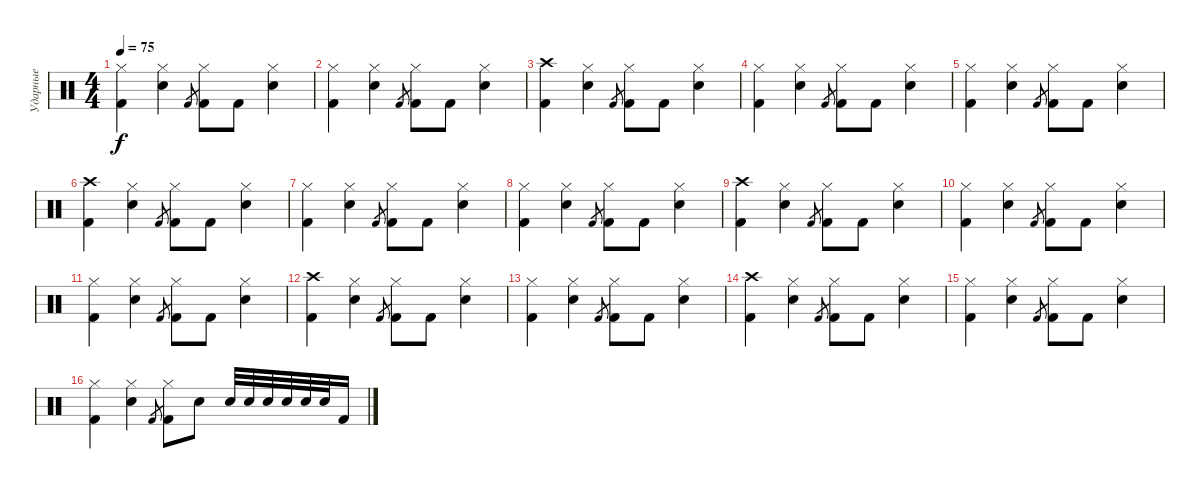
\track ("Ударные" "Ударные") {instrument percussion}
\staff {score}
\articulation defaults
\ts (4 4)
\tempo 75
\clef neutral
\ks c
("Hi-Hat (closed)" "Kick (hit) 2").4{dy f} ("Hi-Hat (closed)" "Electric Snare (hit)").4 "Kick (hit) 2".8{gr} ("Hi-Hat (closed)" "Kick (hit) 2").8 "Kick (hit) 2".8 ("Hi-Hat (closed)" "Electric Snare (hit)").4 |
("Hi-Hat (closed)" "Kick (hit) 2").4 ("Hi-Hat (closed)" "Electric Snare (hit)").4 "Kick (hit) 2".8{gr} ("Hi-Hat (closed)" "Kick (hit) 2").8 "Kick (hit) 2".8 ("Hi-Hat (closed)" "Electric Snare (hit)").4 |
("Crash high (hit)" "Kick (hit) 2").4 ("Hi-Hat (closed)" "Electric Snare (hit)").4 "Kick (hit) 2".8{gr} ("Hi-Hat (closed)" "Kick (hit) 2").8 "Kick (hit) 2".8 ("Hi-Hat (closed)" "Electric Snare (hit)").4 |
("Hi-Hat (closed)" "Kick (hit) 2").4 ("Hi-Hat (closed)" "Electric Snare (hit)").4 "Kick (hit) 2".8{gr} ("Hi-Hat (closed)" "Kick (hit) 2").8 "Kick (hit) 2".8 ("Hi-Hat (closed)" "Electric Snare (hit)").4 |
("Hi-Hat (closed)" "Kick (hit) 2").4 ("Hi-Hat (closed)" "Electric Snare (hit)").4 "Kick (hit) 2".8{gr} ("Hi-Hat (closed)" "Kick (hit) 2").8 "Kick (hit) 2".8 ("Hi-Hat (closed)" "Electric Snare (hit)").4 |
("Crash high (hit)" "Kick (hit) 2").4 ("Hi-Hat (closed)" "Electric Snare (hit)").4 "Kick (hit) 2".8{gr} ("Hi-Hat (closed)" "Kick (hit) 2").8 "Kick (hit) 2".8 ("Hi-Hat (closed)" "Electric Snare (hit)").4 |
("Hi-Hat (closed)" "Kick (hit) 2").4 ("Hi-Hat (closed)" "Electric Snare (hit)").4 "Kick (hit) 2".8{gr} ("Hi-Hat (closed)" "Kick (hit) 2").8 "Kick (hit) 2".8 ("Hi-Hat (closed)" "Electric Snare (hit)").4 |
("Hi-Hat (closed)" "Kick (hit) 2").4 ("Hi-Hat (closed)" "Electric Snare (hit)").4 "Kick (hit) 2".8{gr} ("Hi-Hat (closed)" "Kick (hit) 2").8 "Kick (hit) 2".8 ("Hi-Hat (closed)" "Electric Snare (hit)").4 |
("Crash high (hit)" "Kick (hit) 2").4 ("Hi-Hat (closed)" "Electric Snare (hit)").4 "Kick (hit) 2".8{gr} ("Hi-Hat (closed)" "Kick (hit) 2").8 "Kick (hit) 2".8 ("Hi-Hat (closed)" "Electric Snare (hit)").4 |
("Hi-Hat (closed)" "Kick (hit) 2").4 ("Hi-Hat (closed)" "Electric Snare (hit)").4 "Kick (hit) 2".8{gr} ("Hi-Hat (closed)" "Kick (hit) 2").8 "Kick (hit) 2".8 ("Hi-Hat (closed)" "Electric Snare (hit)").4 |
("Hi-Hat (closed)" "Kick (hit) 2").4 ("Hi-Hat (closed)" "Electric Snare (hit)").4 "Kick (hit) 2".8{gr} ("Hi-Hat (closed)" "Kick (hit) 2").8 "Kick (hit) 2".8 ("Hi-Hat (closed)" "Electric Snare (hit)").4 |
("Crash high (hit)" "Kick (hit) 2").4 ("Hi-Hat (closed)" "Electric Snare (hit)").4 "Kick (hit) 2".8{gr} ("Hi-Hat (closed)" "Kick (hit) 2").8 "Kick (hit) 2".8 ("Hi-Hat (closed)" "Electric Snare (hit)").4 |
("Hi-Hat (closed)" "Kick (hit) 2").4 ("Hi-Hat (closed)" "Electric Snare (hit)").4 "Kick (hit) 2".8{gr} ("Hi-Hat (closed)" "Kick (hit) 2").8 "Kick (hit) 2".8 ("Hi-Hat (closed)" "Electric Snare (hit)").4 |
("Crash high (hit)" "Kick (hit) 2").4 ("Hi-Hat (closed)" "Electric Snare (hit)").4 "Kick (hit) 2".8{gr} ("Hi-Hat (closed)" "Kick (hit) 2").8 "Kick (hit) 2".8 ("Hi-Hat (closed)" "Electric Snare (hit)").4 |
("Hi-Hat (closed)" "Kick (hit) 2").4 ("Hi-Hat (closed)" "Electric Snare (hit)").4 "Kick (hit) 2".8{gr} ("Hi-Hat (closed)" "Kick (hit) 2").8 "Kick (hit) 2".8 ("Hi-Hat (closed)" "Electric Snare (hit)").4 |
("Hi-Hat (closed)" "Kick (hit) 2").4 ("Hi-Hat (closed)" "Electric Snare (hit)").4 "Kick (hit) 2".8{gr} ("Hi-Hat (closed)" "Kick (hit) 2").8 "Electric Snare (hit)".8 "Electric Snare (hit)".32 "Electric Snare (hit)".32 "Electric Snare (hit)".32 "Electric Snare (hit)".32 "Electric Snare (hit)".32 "Electric Snare (hit)".32 "Kick (hit) 2".16
